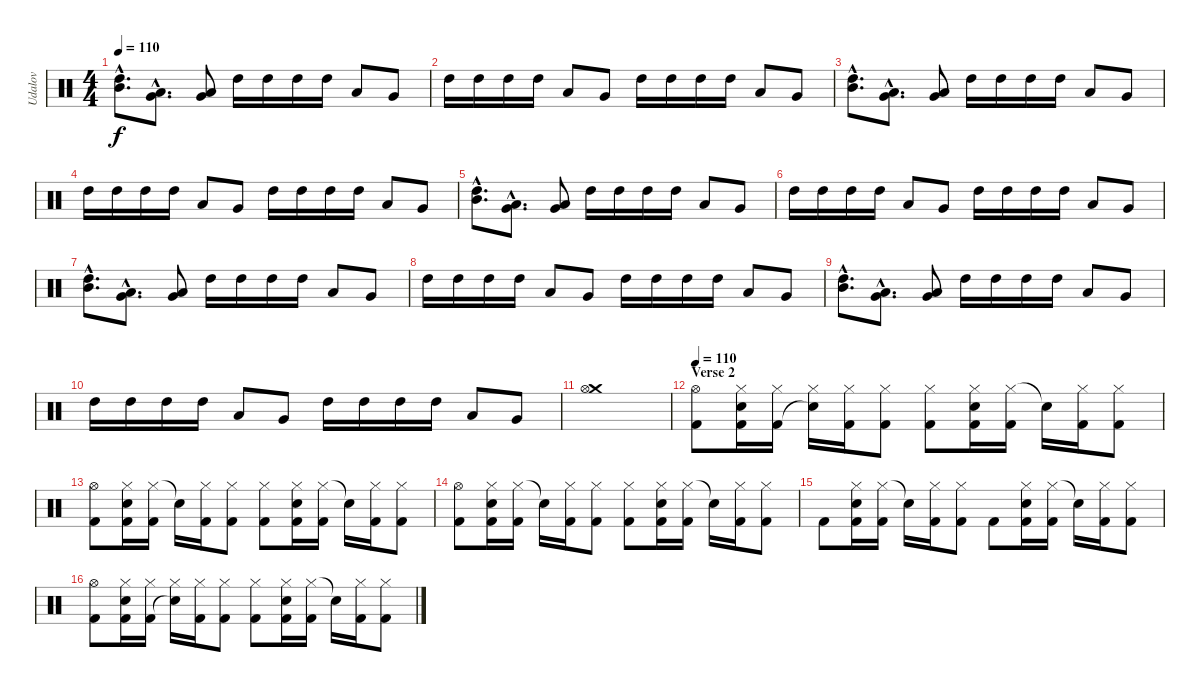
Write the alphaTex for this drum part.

\track ("Udalov" "Udalov") {instrument percussion}
\staff {score}
\articulation defaults
\ts (4 4)
\tempo 110
\clef neutral
\ks c
("High Tom (hit)"{hac} "Mid Tom (hit)"{hac}).8{d dy f} ("Low Tom (hit)"{hac} "Very Low Tom (hit)"{hac}).8{d} ("Very Low Tom (hit)" "Low Floor Tom (hit)").8 "High Tom (hit)".16 "High Tom (hit)".16 "High Tom (hit)".16 "High Tom (hit)".16 "Low Tom (hit)".8 "Very Low Tom (hit)".8 |
"High Tom (hit)".16 "High Tom (hit)".16 "High Tom (hit)".16 "High Tom (hit)".16 "Low Tom (hit)".8 "Very Low Tom (hit)".8 "High Tom (hit)".16 "High Tom (hit)".16 "High Tom (hit)".16 "High Tom (hit)".16 "Low Tom (hit)".8 "Very Low Tom (hit)".8 |
("High Tom (hit)"{hac} "Mid Tom (hit)"{hac}).8{d} ("Low Tom (hit)"{hac} "Very Low Tom (hit)"{hac}).8{d} ("Very Low Tom (hit)" "Low Floor Tom (hit)").8 "High Tom (hit)".16 "High Tom (hit)".16 "High Tom (hit)".16 "High Tom (hit)".16 "Low Tom (hit)".8 "Very Low Tom (hit)".8 |
"High Tom (hit)".16 "High Tom (hit)".16 "High Tom (hit)".16 "High Tom (hit)".16 "Low Tom (hit)".8 "Very Low Tom (hit)".8 "High Tom (hit)".16 "High Tom (hit)".16 "High Tom (hit)".16 "High Tom (hit)".16 "Low Tom (hit)".8 "Very Low Tom (hit)".8 |
("High Tom (hit)"{hac} "Mid Tom (hit)"{hac}).8{d} ("Low Tom (hit)"{hac} "Very Low Tom (hit)"{hac}).8{d} ("Very Low Tom (hit)" "Low Floor Tom (hit)").8 "High Tom (hit)".16 "High Tom (hit)".16 "High Tom (hit)".16 "High Tom (hit)".16 "Low Tom (hit)".8 "Very Low Tom (hit)".8 |
"High Tom (hit)".16 "High Tom (hit)".16 "High Tom (hit)".16 "High Tom (hit)".16 "Low Tom (hit)".8 "Very Low Tom (hit)".8 "High Tom (hit)".16 "High Tom (hit)".16 "High Tom (hit)".16 "High Tom (hit)".16 "Low Tom (hit)".8 "Very Low Tom (hit)".8 |
("High Tom (hit)"{hac} "Mid Tom (hit)"{hac}).8{d} ("Low Tom (hit)"{hac} "Very Low Tom (hit)"{hac}).8{d} ("Very Low Tom (hit)" "Low Floor Tom (hit)").8 "High Tom (hit)".16 "High Tom (hit)".16 "High Tom (hit)".16 "High Tom (hit)".16 "Low Tom (hit)".8 "Very Low Tom (hit)".8 |
"High Tom (hit)".16 "High Tom (hit)".16 "High Tom (hit)".16 "High Tom (hit)".16 "Low Tom (hit)".8 "Very Low Tom (hit)".8 "High Tom (hit)".16 "High Tom (hit)".16 "High Tom (hit)".16 "High Tom (hit)".16 "Low Tom (hit)".8 "Very Low Tom (hit)".8 |
("High Tom (hit)"{hac} "Mid Tom (hit)"{hac}).8{d} ("Low Tom (hit)"{hac} "Very Low Tom (hit)"{hac}).8{d} ("Very Low Tom (hit)" "Low Floor Tom (hit)").8 "High Tom (hit)".16 "High Tom (hit)".16 "High Tom (hit)".16 "High Tom (hit)".16 "Low Tom (hit)".8 "Very Low Tom (hit)".8 |
"High Tom (hit)".16 "High Tom (hit)".16 "High Tom (hit)".16 "High Tom (hit)".16 "Low Tom (hit)".8 "Very Low Tom (hit)".8 "High Tom (hit)".16 "High Tom (hit)".16 "High Tom (hit)".16 "High Tom (hit)".16 "Low Tom (hit)".8 "Very Low Tom (hit)".8 |
("Crash medium (hit)" "Hi-Hat (open)").1 |
\section ("" "Verse 2")
\tempo 110
("Hi-Hat (open)" "Kick (hit) 2").8 ("Hi-Hat (closed)" "Snare (hit) 2" "Kick (hit) 2").16 ("Hi-Hat (closed)" "Kick (hit) 2").16 ("Hi-Hat (closed)" "Snare (hit)"{t}).16 ("Hi-Hat (closed)" "Kick (hit) 2").16 ("Hi-Hat (closed)" "Kick (hit) 2").8 ("Hi-Hat (closed)" "Kick (hit) 2").8 ("Hi-Hat (closed)" "Snare (hit) 2" "Kick (hit) 2").16 ("Hi-Hat (closed)" "Kick (hit) 2").16 "Snare (hit)"{t}.16 ("Hi-Hat (closed)" "Kick (hit) 2").16 ("Hi-Hat (closed)" "Kick (hit) 2").8 |
("Hi-Hat (open)" "Kick (hit) 2").8 ("Hi-Hat (closed)" "Snare (hit) 2" "Kick (hit) 2").16 ("Hi-Hat (closed)" "Kick (hit) 2").16 "Snare (hit)"{t}.16 ("Hi-Hat (closed)" "Kick (hit) 2").16 ("Hi-Hat (closed)" "Kick (hit) 2").8 ("Hi-Hat (closed)" "Kick (hit) 2").8 ("Hi-Hat (closed)" "Snare (hit) 2" "Kick (hit) 2").16 ("Hi-Hat (closed)" "Kick (hit) 2").16 "Snare (hit)"{t}.16 ("Hi-Hat (closed)" "Kick (hit) 2").16 ("Hi-Hat (closed)" "Kick (hit) 2").8 |
("Hi-Hat (open)" "Kick (hit) 2").8 ("Hi-Hat (closed)" "Snare (hit) 2" "Kick (hit) 2").16 ("Hi-Hat (closed)" "Kick (hit) 2").16 "Snare (hit)"{t}.16 ("Hi-Hat (closed)" "Kick (hit) 2").16 ("Hi-Hat (closed)" "Kick (hit) 2").8 ("Hi-Hat (closed)" "Kick (hit) 2").8 ("Hi-Hat (closed)" "Snare (hit) 2" "Kick (hit) 2").16 ("Hi-Hat (closed)" "Kick (hit) 2").16 "Snare (hit)"{t}.16 ("Hi-Hat (closed)" "Kick (hit) 2").16 ("Hi-Hat (closed)" "Kick (hit) 2").8 |
"Kick (hit) 2".8 ("Hi-Hat (closed)" "Snare (hit) 2" "Kick (hit) 2").16 ("Hi-Hat (closed)" "Kick (hit) 2").16 "Snare (hit)"{t}.16 ("Hi-Hat (closed)" "Kick (hit) 2").16 ("Hi-Hat (closed)" "Kick (hit) 2").8 "Kick (hit) 2".8 ("Hi-Hat (closed)" "Snare (hit) 2" "Kick (hit) 2").16 ("Hi-Hat (closed)" "Kick (hit) 2").16 "Snare (hit)"{t}.16 ("Hi-Hat (closed)" "Kick (hit) 2").16 ("Hi-Hat (closed)" "Kick (hit) 2").8 |
("Hi-Hat (open)" "Kick (hit) 2").8 ("Hi-Hat (closed)" "Snare (hit) 2" "Kick (hit) 2").16 ("Hi-Hat (closed)" "Kick (hit) 2").16 ("Hi-Hat (closed)" "Snare (hit)"{t}).16 ("Hi-Hat (closed)" "Kick (hit) 2").16 ("Hi-Hat (closed)" "Kick (hit) 2").8 ("Hi-Hat (closed)" "Kick (hit) 2").8 ("Hi-Hat (closed)" "Snare (hit) 2" "Kick (hit) 2").16 ("Hi-Hat (closed)" "Kick (hit) 2").16 "Snare (hit)"{t}.16 ("Hi-Hat (closed)" "Kick (hit) 2").16 ("Hi-Hat (closed)" "Kick (hit) 2").8
